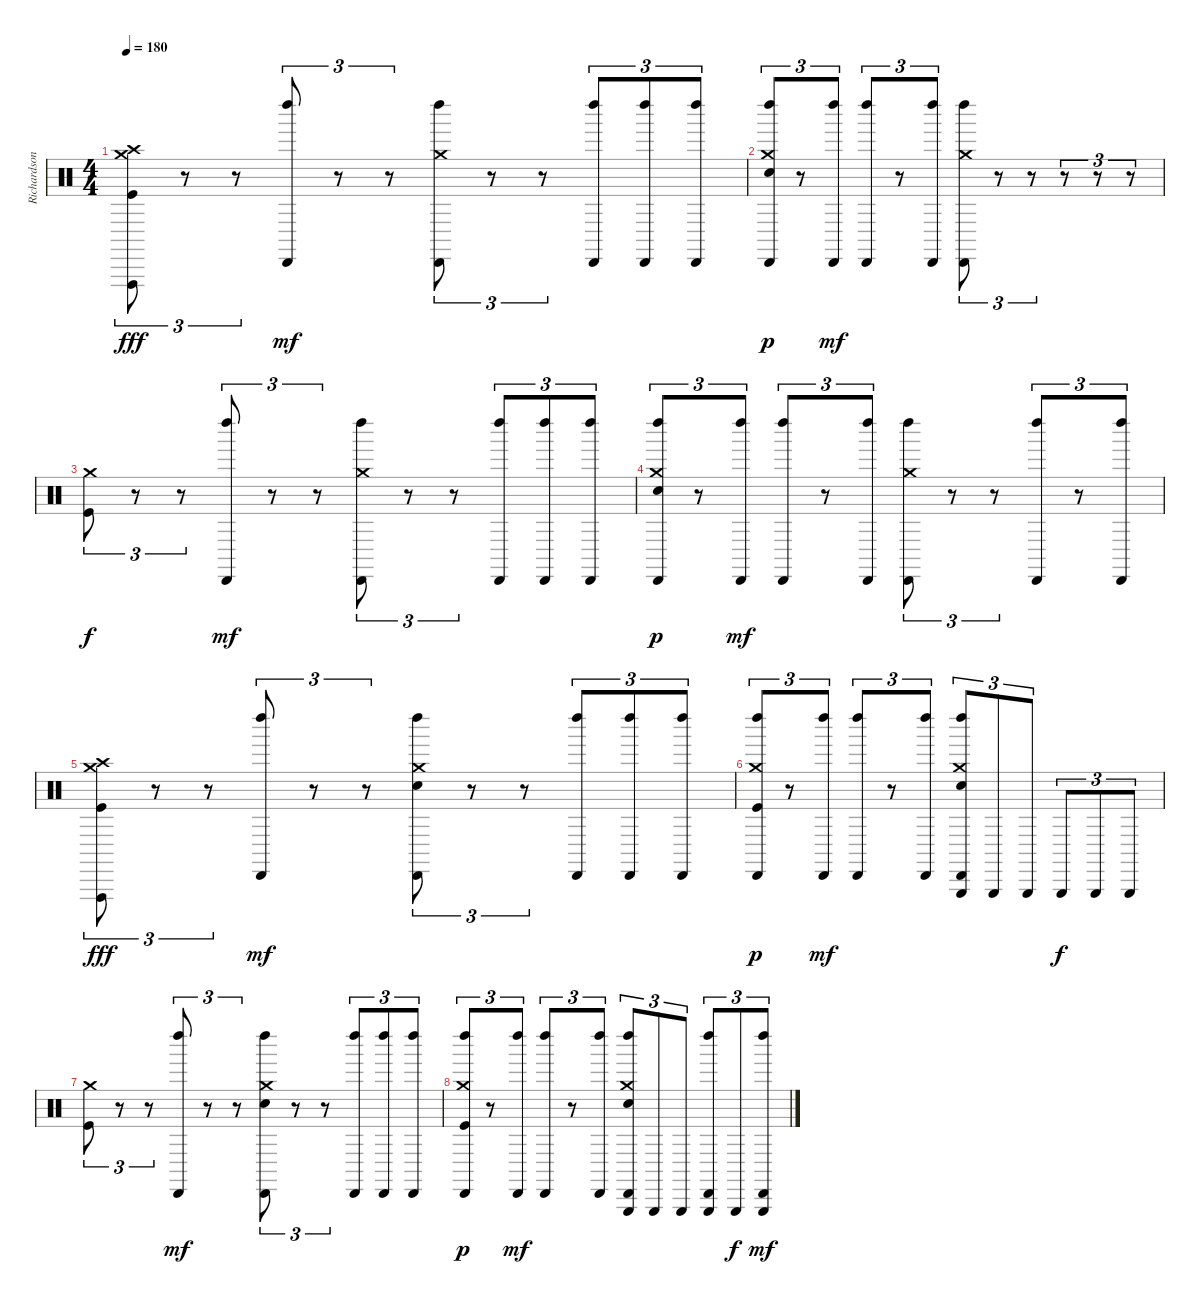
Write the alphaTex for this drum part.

\track ("Richardson" "Richardson") {instrument percussion}
\staff {score}
\articulation defaults
\ts (4 4)
\tempo 180
\clef neutral
\ks c
("Crash medium (hit)" "Crash high (hit)" "Vibraslap (hit)" "Kick (hit)").8{tu (3 2) dy fff} r.8{tu (3 2)} r.8{tu (3 2)} ("Cabasa (hit)" "Left Maraca (hit)").8{tu (3 2) dy mf} r.8{tu (3 2)} r.8{tu (3 2)} ("Crash medium (hit)" "Cabasa (hit)" "Left Maraca (hit)").8{tu (3 2)} r.8{tu (3 2)} r.8{tu (3 2)} ("Cabasa (hit)" "Left Maraca (hit)").8{tu (3 2)} ("Cabasa (hit)" "Left Maraca (hit)").8{tu (3 2)} ("Cabasa (hit)" "Left Maraca (hit)").8{tu (3 2)} |
("Crash medium (hit)" "Left Maraca (hit)" "Electric Snare (hit)" "Cabasa (hit)").8{tu (3 2) dy p} r.8{tu (3 2)} ("Cabasa (hit)" "Left Maraca (hit)").8{tu (3 2) dy mf} ("Cabasa (hit)" "Left Maraca (hit)").8{tu (3 2)} r.8{tu (3 2)} ("Cabasa (hit)" "Left Maraca (hit)").8{tu (3 2)} ("Crash medium (hit)" "Cabasa (hit)" "Left Maraca (hit)").8{tu (3 2)} r.8{tu (3 2)} r.8{tu (3 2)} r.8{tu (3 2)} r.8{tu (3 2)} r.8{tu (3 2)} |
("Crash medium (hit)" "Kick (hit)").8{tu (3 2) dy f} r.8{tu (3 2)} r.8{tu (3 2)} ("Cabasa (hit)" "Left Maraca (hit)").8{tu (3 2) dy mf} r.8{tu (3 2)} r.8{tu (3 2)} ("Crash medium (hit)" "Cabasa (hit)" "Left Maraca (hit)").8{tu (3 2)} r.8{tu (3 2)} r.8{tu (3 2)} ("Cabasa (hit)" "Left Maraca (hit)").8{tu (3 2)} ("Cabasa (hit)" "Left Maraca (hit)").8{tu (3 2)} ("Cabasa (hit)" "Left Maraca (hit)").8{tu (3 2)} |
("Crash medium (hit)" "Left Maraca (hit)" "Electric Snare (hit)" "Cabasa (hit)").8{tu (3 2) dy p} r.8{tu (3 2)} ("Cabasa (hit)" "Left Maraca (hit)").8{tu (3 2) dy mf} ("Cabasa (hit)" "Left Maraca (hit)").8{tu (3 2)} r.8{tu (3 2)} ("Cabasa (hit)" "Left Maraca (hit)").8{tu (3 2)} ("Crash medium (hit)" "Cabasa (hit)" "Left Maraca (hit)").8{tu (3 2)} r.8{tu (3 2)} r.8{tu (3 2)} ("Cabasa (hit)" "Left Maraca (hit)").8{tu (3 2)} r.8{tu (3 2)} ("Cabasa (hit)" "Left Maraca (hit)").8{tu (3 2)} |
("Crash medium (hit)" "Crash high (hit)" "Vibraslap (hit)" "Kick (hit)").8{tu (3 2) dy fff} r.8{tu (3 2)} r.8{tu (3 2)} ("Cabasa (hit)" "Left Maraca (hit)").8{tu (3 2) dy mf} r.8{tu (3 2)} r.8{tu (3 2)} ("Crash medium (hit)" "Electric Snare (hit)" "Cabasa (hit)" "Left Maraca (hit)").8{tu (3 2)} r.8{tu (3 2)} r.8{tu (3 2)} ("Cabasa (hit)" "Left Maraca (hit)").8{tu (3 2)} ("Cabasa (hit)" "Left Maraca (hit)").8{tu (3 2)} ("Cabasa (hit)" "Left Maraca (hit)").8{tu (3 2)} |
("Crash medium (hit)" "Left Maraca (hit)" "Cabasa (hit)" "Kick (hit)").8{tu (3 2) dy p} r.8{tu (3 2)} ("Cabasa (hit)" "Left Maraca (hit)").8{tu (3 2) dy mf} ("Cabasa (hit)" "Left Maraca (hit)").8{tu (3 2)} r.8{tu (3 2)} ("Cabasa (hit)" "Left Maraca (hit)").8{tu (3 2)} ("Crash medium (hit)" "Triangle (hit)" "Electric Snare (hit)" "Cabasa (hit)" "Left Maraca (hit)").8{tu (3 2)} "Triangle (hit)".8{tu (3 2)} "Triangle (hit)".8{tu (3 2)} "Triangle (hit)".8{tu (3 2) dy f} "Triangle (hit)".8{tu (3 2)} "Triangle (hit)".8{tu (3 2)} |
("Crash medium (hit)" "Kick (hit)").8{tu (3 2)} r.8{tu (3 2)} r.8{tu (3 2)} ("Cabasa (hit)" "Left Maraca (hit)").8{tu (3 2) dy mf} r.8{tu (3 2)} r.8{tu (3 2)} ("Crash medium (hit)" "Electric Snare (hit)" "Cabasa (hit)" "Left Maraca (hit)").8{tu (3 2)} r.8{tu (3 2)} r.8{tu (3 2)} ("Cabasa (hit)" "Left Maraca (hit)").8{tu (3 2)} ("Cabasa (hit)" "Left Maraca (hit)").8{tu (3 2)} ("Cabasa (hit)" "Left Maraca (hit)").8{tu (3 2)} |
("Crash medium (hit)" "Left Maraca (hit)" "Cabasa (hit)" "Kick (hit)").8{tu (3 2) dy p} r.8{tu (3 2)} ("Cabasa (hit)" "Left Maraca (hit)").8{tu (3 2) dy mf} ("Cabasa (hit)" "Left Maraca (hit)").8{tu (3 2)} r.8{tu (3 2)} ("Cabasa (hit)" "Left Maraca (hit)").8{tu (3 2)} ("Crash medium (hit)" "Triangle (hit)" "Electric Snare (hit)" "Cabasa (hit)" "Left Maraca (hit)").8{tu (3 2)} "Triangle (hit)".8{tu (3 2)} "Triangle (hit)".8{tu (3 2)} ("Triangle (hit)" "Cabasa (hit)" "Left Maraca (hit)").8{tu (3 2)} "Triangle (hit)".8{tu (3 2) dy f} ("Triangle (hit)" "Cabasa (hit)" "Left Maraca (hit)").8{tu (3 2) dy mf}
